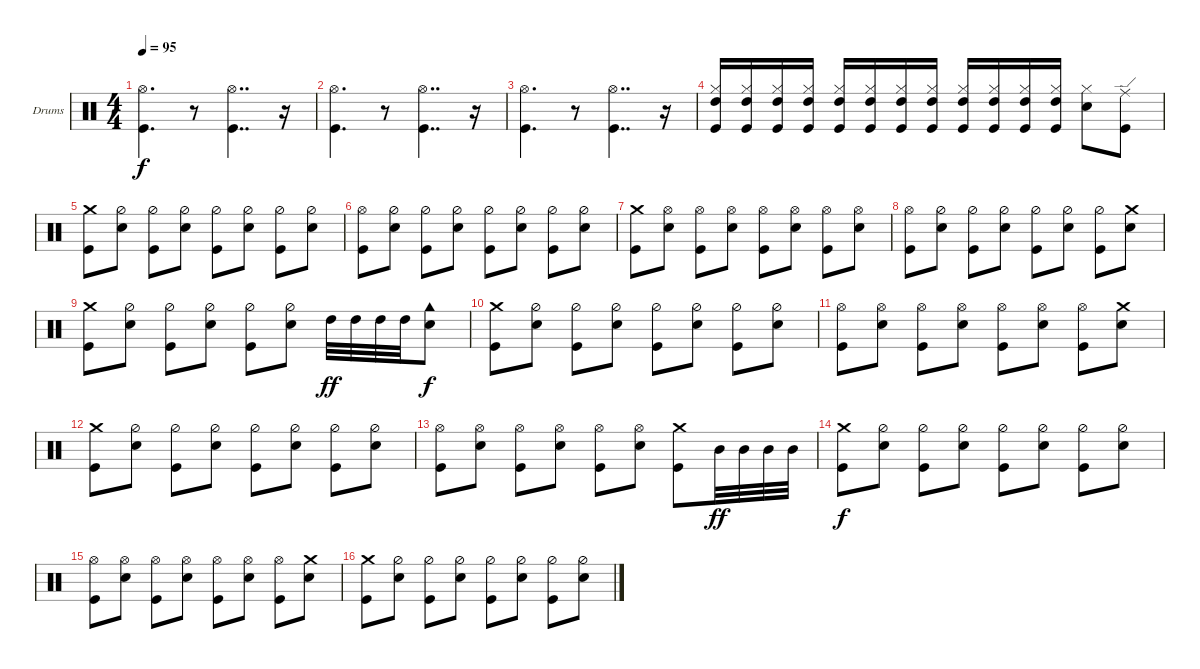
\defaultSystemsLayout 4
\bracketExtendMode groupsimilarinstruments
\firstSystemTrackNameOrientation horizontal
\otherSystemsTrackNameOrientation horizontal
\track ("Drumkit" "Drums") {instrument percussion}
\staff {score}
\articulation defaults
\ts (4 4)
\tempo 95
\clef neutral
\scale
0.472222
\ks c
("Kick (hit)" "Hi-Hat (open)").4{d dy f} r.8 ("Kick (hit)" "Hi-Hat (open)").4{dd} r.16 |
\scale
0.263889 ("Kick (hit)" "Hi-Hat (open)").4{d} r.8 ("Kick (hit)" "Hi-Hat (open)").4{dd} r.16 |
\scale
0.263889 ("Kick (hit)" "Hi-Hat (open)").4{d} r.8 ("Kick (hit)" "Hi-Hat (open)").4{dd} r.16 |
\scale
0.333333 ("Kick (hit)" "Hi-Hat (closed)" "High Tom (hit)").16 ("Kick (hit)" "Hi-Hat (closed)" "High Tom (hit)").16 ("Kick (hit)" "Hi-Hat (closed)" "High Tom (hit)").16 ("Kick (hit)" "Hi-Hat (closed)" "High Tom (hit)").16 ("Kick (hit)" "Hi-Hat (closed)" "High Tom (hit)").16 ("Kick (hit)" "Hi-Hat (closed)" "High Tom (hit)").16 ("Kick (hit)" "Hi-Hat (closed)" "High Tom (hit)").16 ("Kick (hit)" "Hi-Hat (closed)" "High Tom (hit)").16 ("Kick (hit)" "Hi-Hat (closed)" "High Tom (hit)").16 ("Kick (hit)" "Hi-Hat (closed)" "High Tom (hit)").16 ("Kick (hit)" "Hi-Hat (closed)" "High Tom (hit)").16 ("Kick (hit)" "Hi-Hat (closed)" "High Tom (hit)").16 ("Snare (hit) 2" "Hi-Hat (closed)").8 ("Kick (hit)" "Ride (edge)").8 |
\scale
0.333333 ("Kick (hit)" "Crash medium (hit)").8 ("Snare (hit) 2" "Hi-Hat (half)").8 ("Kick (hit)" "Hi-Hat (half)").8 ("Snare (hit) 2" "Hi-Hat (half)").8 ("Kick (hit)" "Hi-Hat (half)").8 ("Snare (hit) 2" "Hi-Hat (half)").8 ("Kick (hit)" "Hi-Hat (half)").8 ("Snare (hit) 2" "Hi-Hat (half)").8 |
\scale
0.333333 ("Kick (hit)" "Hi-Hat (open)").8 ("Snare (hit) 2" "Hi-Hat (half)").8 ("Kick (hit)" "Hi-Hat (half)").8 ("Snare (hit) 2" "Hi-Hat (half)").8 ("Kick (hit)" "Hi-Hat (half)").8 ("Snare (hit) 2" "Hi-Hat (half)").8 ("Kick (hit)" "Hi-Hat (half)").8 ("Snare (hit) 2" "Hi-Hat (half)").8 |
\scale
0.333333 ("Kick (hit)" "Crash medium (hit)").8 ("Snare (hit) 2" "Hi-Hat (open)").8 ("Kick (hit)" "Hi-Hat (open)").8 ("Snare (hit) 2" "Hi-Hat (open)").8 ("Kick (hit)" "Hi-Hat (open)").8 ("Snare (hit) 2" "Hi-Hat (open)").8 ("Kick (hit)" "Hi-Hat (open)").8 ("Snare (hit) 2" "Hi-Hat (open)").8 |
\scale
0.333333 ("Kick (hit)" "Hi-Hat (open)").8 ("Snare (hit) 2" "Hi-Hat (half)").8 ("Kick (hit)" "Hi-Hat (half)").8 ("Snare (hit) 2" "Hi-Hat (half)").8 ("Kick (hit)" "Hi-Hat (half)").8 ("Snare (hit) 2" "Hi-Hat (half)").8 ("Kick (hit)" "Hi-Hat (half)").8 ("Crash medium (hit)" "Snare (hit) 2").8 |
\scale
0.333333 ("Kick (hit)" "Crash medium (hit)").8 ("Snare (hit) 2" "Hi-Hat (half)").8 ("Kick (hit)" "Hi-Hat (half)").8 ("Snare (hit) 2" "Hi-Hat (half)").8 ("Kick (hit)" "Hi-Hat (half)").8 ("Snare (hit) 2" "Hi-Hat (half)").8 "High Tom (hit)".32{dy ff} "High Tom (hit)".32 "High Tom (hit)".32 "High Tom (hit)".32 ("Snare (hit) 2" "Cowbell high (hit)").8{dy f} |
\scale
0.333333 ("Kick (hit)" "Crash medium (hit)").8 ("Snare (hit) 2" "Hi-Hat (half)").8 ("Kick (hit)" "Hi-Hat (half)").8 ("Snare (hit) 2" "Hi-Hat (half)").8 ("Kick (hit)" "Hi-Hat (half)").8 ("Snare (hit) 2" "Hi-Hat (half)").8 ("Kick (hit)" "Hi-Hat (half)").8 ("Snare (hit) 2" "Hi-Hat (half)").8 |
\scale
0.333333 ("Kick (hit)" "Hi-Hat (open)").8 ("Snare (hit) 2" "Hi-Hat (open)").8 ("Kick (hit)" "Hi-Hat (open)").8 ("Snare (hit) 2" "Hi-Hat (open)").8 ("Kick (hit)" "Hi-Hat (open)").8 ("Snare (hit) 2" "Hi-Hat (open)").8 ("Kick (hit)" "Hi-Hat (open)").8 ("Crash medium (hit)" "Snare (hit) 2").8 |
\scale
0.333333 ("Kick (hit)" "Crash medium (hit)").8 ("Snare (hit) 2" "Hi-Hat (half)").8 ("Kick (hit)" "Hi-Hat (half)").8 ("Snare (hit) 2" "Hi-Hat (half)").8 ("Kick (hit)" "Hi-Hat (half)").8 ("Snare (hit) 2" "Hi-Hat (half)").8 ("Kick (hit)" "Hi-Hat (half)").8 ("Snare (hit) 2" "Hi-Hat (half)").8 |
\scale
0.333333 ("Kick (hit)" "Hi-Hat (open)").8 ("Snare (hit) 2" "Hi-Hat (open)").8 ("Kick (hit)" "Hi-Hat (open)").8 ("Snare (hit) 2" "Hi-Hat (open)").8 ("Kick (hit)" "Hi-Hat (open)").8 ("Snare (hit) 2" "Hi-Hat (open)").8 ("Kick (hit)" "Crash medium (hit)").8 "Mid Tom (hit)".32{dy ff} "Mid Tom (hit)".32 "Mid Tom (hit)".32 "Mid Tom (hit)".32 |
\scale
0.333333 ("Kick (hit)" "Crash medium (hit)").8{dy f} ("Snare (hit) 2" "Hi-Hat (half)").8 ("Kick (hit)" "Hi-Hat (half)").8 ("Snare (hit) 2" "Hi-Hat (half)").8 ("Kick (hit)" "Hi-Hat (half)").8 ("Snare (hit) 2" "Hi-Hat (half)").8 ("Kick (hit)" "Hi-Hat (half)").8 ("Snare (hit) 2" "Hi-Hat (half)").8 |
\scale
0.333333 ("Kick (hit)" "Hi-Hat (open)").8 ("Snare (hit) 2" "Hi-Hat (open)").8 ("Kick (hit)" "Hi-Hat (open)").8 ("Snare (hit) 2" "Hi-Hat (open)").8 ("Kick (hit)" "Hi-Hat (open)").8 ("Snare (hit) 2" "Hi-Hat (open)").8 ("Kick (hit)" "Hi-Hat (open)").8 ("Crash medium (hit)" "Snare (hit) 2").8 |
\scale
0.333333 ("Kick (hit)" "Crash medium (hit)").8 ("Snare (hit) 2" "Hi-Hat (half)").8 ("Kick (hit)" "Hi-Hat (half)").8 ("Snare (hit) 2" "Hi-Hat (half)").8 ("Kick (hit)" "Hi-Hat (half)").8 ("Snare (hit) 2" "Hi-Hat (half)").8 ("Kick (hit)" "Hi-Hat (half)").8 ("Snare (hit) 2" "Hi-Hat (half)").8
